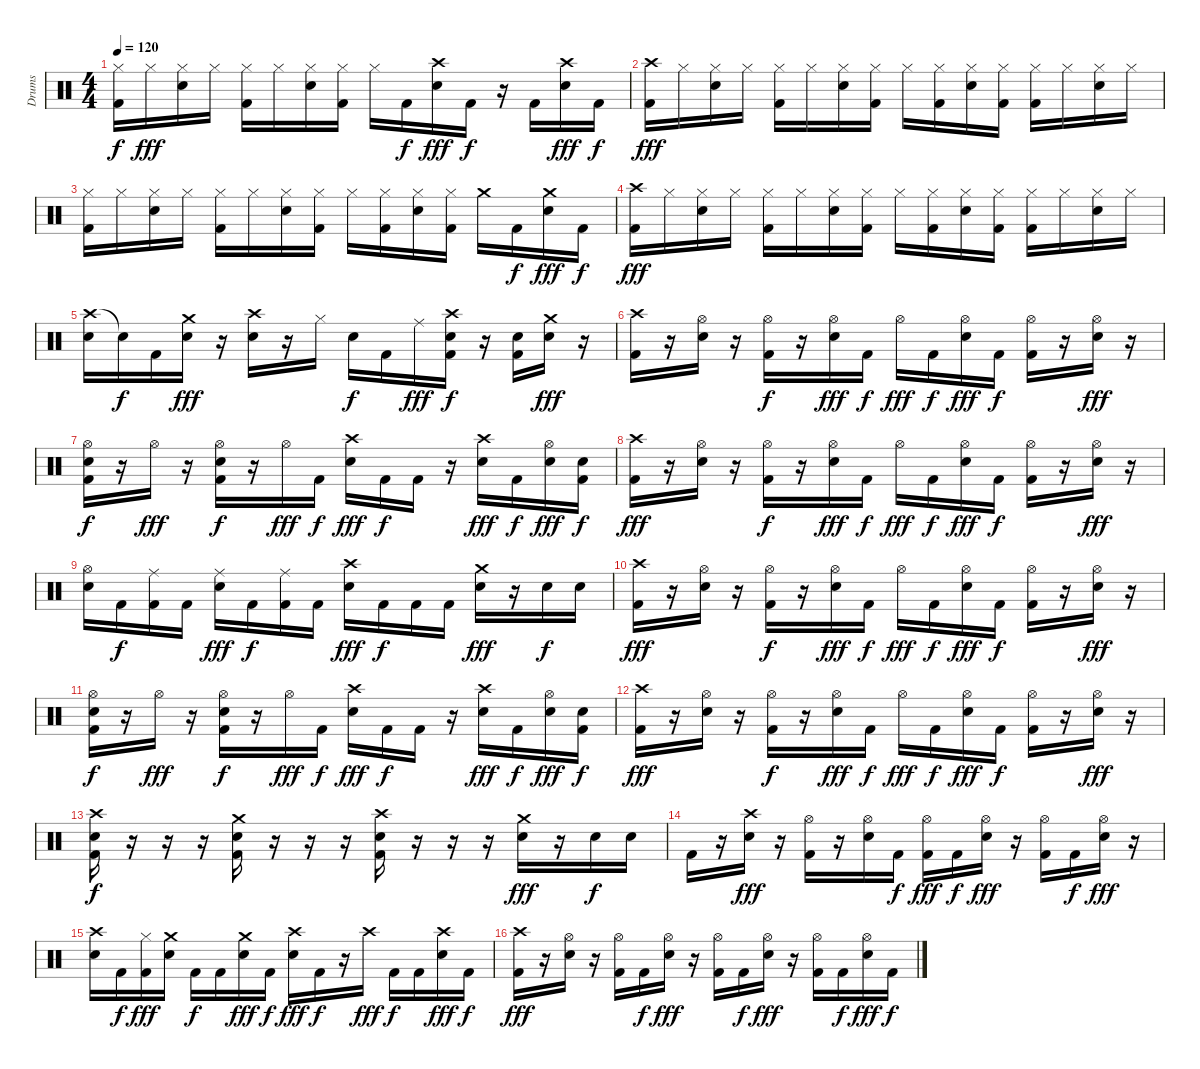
\track ("Drums" "Drums") {instrument percussion}
\staff {score}
\articulation defaults
\ts (4 4)
\tempo 120
\clef neutral
\ks c
("Hi-Hat (closed)" "Kick (hit) 2").16{dy f} "Hi-Hat (closed)".16{dy fff} ("Hi-Hat (closed)" "Snare (hit) 2").16 "Hi-Hat (closed)".16 ("Hi-Hat (closed)" "Kick (hit) 2").16 "Hi-Hat (closed)".16 ("Hi-Hat (closed)" "Snare (hit) 2").16 ("Hi-Hat (closed)" "Kick (hit) 2").16 "Hi-Hat (closed)".16 "Kick (hit) 2".16{dy f} ("Crash high (hit)" "Snare (hit) 2").16{dy fff} "Kick (hit) 2".16{dy f} r.16 "Kick (hit) 2".16 ("Crash high (hit)" "Snare (hit) 2").16{dy fff} "Kick (hit) 2".16{dy f} |
("Crash high (hit)" "Kick (hit) 2").16{dy fff} "Hi-Hat (closed)".16 ("Hi-Hat (closed)" "Snare (hit) 2").16 "Hi-Hat (closed)".16 ("Hi-Hat (closed)" "Kick (hit) 2").16 "Hi-Hat (closed)".16 ("Hi-Hat (closed)" "Snare (hit) 2").16 ("Hi-Hat (closed)" "Kick (hit) 2").16 "Hi-Hat (closed)".16 ("Hi-Hat (closed)" "Kick (hit) 2").16 ("Hi-Hat (closed)" "Snare (hit) 2").16 ("Hi-Hat (closed)" "Kick (hit) 2").16 ("Hi-Hat (closed)" "Kick (hit) 2").16 "Hi-Hat (closed)".16 ("Hi-Hat (closed)" "Snare (hit) 2").16 "Hi-Hat (closed)".16 |
("Hi-Hat (closed)" "Kick (hit) 2").16 "Hi-Hat (closed)".16 ("Hi-Hat (closed)" "Snare (hit) 2").16 "Hi-Hat (closed)".16 ("Hi-Hat (closed)" "Kick (hit) 2").16 "Hi-Hat (closed)".16 ("Hi-Hat (closed)" "Snare (hit) 2").16 ("Hi-Hat (closed)" "Kick (hit) 2").16 "Hi-Hat (closed)".16 ("Hi-Hat (closed)" "Kick (hit) 2").16 ("Hi-Hat (closed)" "Snare (hit) 2").16 ("Hi-Hat (closed)" "Kick (hit) 2").16 "Crash medium (hit)".16 "Kick (hit) 2".16{dy f} ("Crash medium (hit)" "Snare (hit) 2").16{dy fff} "Kick (hit) 2".16{dy f} |
("Crash high (hit)" "Kick (hit) 2").16{dy fff} "Hi-Hat (closed)".16 ("Hi-Hat (closed)" "Snare (hit) 2").16 "Hi-Hat (closed)".16 ("Hi-Hat (closed)" "Kick (hit) 2").16 "Hi-Hat (closed)".16 ("Hi-Hat (closed)" "Snare (hit) 2").16 ("Hi-Hat (closed)" "Kick (hit) 2").16 "Hi-Hat (closed)".16 ("Hi-Hat (closed)" "Kick (hit) 2").16 ("Hi-Hat (closed)" "Snare (hit) 2").16 ("Hi-Hat (closed)" "Kick (hit) 2").16 ("Hi-Hat (closed)" "Kick (hit) 2").16 "Hi-Hat (closed)".16 ("Hi-Hat (closed)" "Snare (hit) 2").16 "Hi-Hat (closed)".16 |
("Crash high (hit)" "Snare (hit) 2").16 "Snare (hit)"{t}.16{dy f} "Kick (hit) 2".16 ("Crash medium (hit)" "Snare (hit) 2").16{dy fff} r.16 ("Crash high (hit)" "Snare (hit) 2").16 r.16 "Hi-Hat (closed)".16 "Snare (hit) 2".16{dy f} "Kick (hit) 2".16 "Ride (middle)".16{dy fff} ("Crash high (hit)" "Snare (hit) 2" "Kick (hit) 2").16{dy f} r.16 ("Snare (hit) 2" "Kick (hit) 2").16 ("Crash medium (hit)" "Snare (hit) 2").16{dy fff} r.16 |
("Crash high (hit)" "Kick (hit) 2").16 r.16 ("Hi-Hat (open)" "Snare (hit) 2").16 r.16 ("Hi-Hat (open)" "Kick (hit) 2").16{dy f} r.16 ("Hi-Hat (open)" "Snare (hit) 2").16{dy fff} "Kick (hit) 2".16{dy f} "Hi-Hat (open)".16{dy fff} "Kick (hit) 2".16{dy f} ("Hi-Hat (open)" "Snare (hit) 2").16{dy fff} "Kick (hit) 2".16{dy f} ("Hi-Hat (open)" "Kick (hit) 2").16 r.16 ("Hi-Hat (open)" "Snare (hit) 2").16{dy fff} r.16 |
("Hi-Hat (open)" "Snare (hit) 2" "Kick (hit) 2").16{dy f} r.16 "Hi-Hat (open)".16{dy fff} r.16 ("Hi-Hat (open)" "Snare (hit) 2" "Kick (hit) 2").16{dy f} r.16 "Hi-Hat (open)".16{dy fff} "Kick (hit) 2".16{dy f} ("Crash high (hit)" "Snare (hit) 2").16{dy fff} "Kick (hit) 2".16{dy f} "Kick (hit) 2".16 r.16 ("Crash high (hit)" "Snare (hit) 2").16{dy fff} "Kick (hit) 2".16{dy f} ("Hi-Hat (open)" "Snare (hit) 2").16{dy fff} ("Snare (hit) 2" "Kick (hit) 2").16{dy f} |
("Crash high (hit)" "Kick (hit) 2").16{dy fff} r.16 ("Hi-Hat (open)" "Snare (hit) 2").16 r.16 ("Hi-Hat (open)" "Kick (hit) 2").16{dy f} r.16 ("Hi-Hat (open)" "Snare (hit) 2").16{dy fff} "Kick (hit) 2".16{dy f} "Hi-Hat (open)".16{dy fff} "Kick (hit) 2".16{dy f} ("Hi-Hat (open)" "Snare (hit) 2").16{dy fff} "Kick (hit) 2".16{dy f} ("Hi-Hat (open)" "Kick (hit) 2").16 r.16 ("Hi-Hat (open)" "Snare (hit) 2").16{dy fff} r.16 |
("Hi-Hat (open)" "Snare (hit) 2").16 "Kick (hit) 2".16{dy f} ("Ride (middle)" "Kick (hit) 2").16 "Kick (hit) 2".16 ("Ride (middle)" "Snare (hit) 2").16{dy fff} "Kick (hit) 2".16{dy f} ("Ride (middle)" "Kick (hit) 2").16 "Kick (hit) 2".16 ("Crash high (hit)" "Snare (hit) 2").16{dy fff} "Kick (hit) 2".16{dy f} "Kick (hit) 2".16 "Kick (hit) 2".16 ("Crash medium (hit)" "Snare (hit) 2").16{dy fff} r.16 "Snare (hit) 2".16{dy f} "Snare (hit) 2".16 |
("Crash high (hit)" "Kick (hit) 2").16{dy fff} r.16 ("Hi-Hat (open)" "Snare (hit) 2").16 r.16 ("Hi-Hat (open)" "Kick (hit) 2").16{dy f} r.16 ("Hi-Hat (open)" "Snare (hit) 2").16{dy fff} "Kick (hit) 2".16{dy f} "Hi-Hat (open)".16{dy fff} "Kick (hit) 2".16{dy f} ("Hi-Hat (open)" "Snare (hit) 2").16{dy fff} "Kick (hit) 2".16{dy f} ("Hi-Hat (open)" "Kick (hit) 2").16 r.16 ("Hi-Hat (open)" "Snare (hit) 2").16{dy fff} r.16 |
("Hi-Hat (open)" "Snare (hit) 2" "Kick (hit) 2").16{dy f} r.16 "Hi-Hat (open)".16{dy fff} r.16 ("Hi-Hat (open)" "Snare (hit) 2" "Kick (hit) 2").16{dy f} r.16 "Hi-Hat (open)".16{dy fff} "Kick (hit) 2".16{dy f} ("Crash high (hit)" "Snare (hit) 2").16{dy fff} "Kick (hit) 2".16{dy f} "Kick (hit) 2".16 r.16 ("Crash high (hit)" "Snare (hit) 2").16{dy fff} "Kick (hit) 2".16{dy f} ("Hi-Hat (open)" "Snare (hit) 2").16{dy fff} ("Snare (hit) 2" "Kick (hit) 2").16{dy f} |
("Crash high (hit)" "Kick (hit) 2").16{dy fff} r.16 ("Hi-Hat (open)" "Snare (hit) 2").16 r.16 ("Hi-Hat (open)" "Kick (hit) 2").16{dy f} r.16 ("Hi-Hat (open)" "Snare (hit) 2").16{dy fff} "Kick (hit) 2".16{dy f} "Hi-Hat (open)".16{dy fff} "Kick (hit) 2".16{dy f} ("Hi-Hat (open)" "Snare (hit) 2").16{dy fff} "Kick (hit) 2".16{dy f} ("Hi-Hat (open)" "Kick (hit) 2").16 r.16 ("Hi-Hat (open)" "Snare (hit) 2").16{dy fff} r.16 |
("Crash high (hit)" "Snare (hit) 2" "Kick (hit) 2").16{dy f} r.16 r.16 r.16 ("Crash medium (hit)" "Snare (hit) 2" "Kick (hit) 2").16 r.16 r.16 r.16 ("Crash high (hit)" "Snare (hit) 2" "Kick (hit) 2").16 r.16 r.16 r.16 ("Crash medium (hit)" "Snare (hit) 2").16{dy fff} r.16 "Snare (hit) 2".16{dy f} "Snare (hit) 2".16 |
"Kick (hit) 2".16 r.16 ("Crash high (hit)" "Snare (hit) 2").16{dy fff} r.16 ("Hi-Hat (open)" "Kick (hit) 2").16 r.16 ("Hi-Hat (open)" "Snare (hit) 2").16 "Kick (hit) 2".16{dy f} ("Hi-Hat (open)" "Kick (hit) 2").16{dy fff} "Kick (hit) 2".16{dy f} ("Hi-Hat (open)" "Snare (hit) 2").16{dy fff} r.16 ("Hi-Hat (open)" "Kick (hit) 2").16 "Kick (hit) 2".16{dy f} ("Hi-Hat (open)" "Snare (hit) 2").16{dy fff} r.16 |
("Crash high (hit)" "Snare (hit) 2").16 "Kick (hit) 2".16{dy f} ("Hi-Hat (closed)" "Kick (hit) 2").16{dy fff} ("Crash medium (hit)" "Snare (hit) 2").16 "Kick (hit) 2".16{dy f} "Kick (hit) 2".16 ("Crash medium (hit)" "Snare (hit) 2").16{dy fff} "Kick (hit) 2".16{dy f} ("Crash high (hit)" "Snare (hit) 2").16{dy fff} "Kick (hit) 2".16{dy f} r.16 "Crash high (hit)".16{dy fff} "Kick (hit) 2".16{dy f} "Kick (hit) 2".16 ("Crash high (hit)" "Snare (hit) 2").16{dy fff} "Kick (hit) 2".16{dy f} |
("Crash high (hit)" "Kick (hit) 2").16{dy fff} r.16 ("Hi-Hat (open)" "Snare (hit) 2").16 r.16 ("Hi-Hat (open)" "Kick (hit) 2").16 "Kick (hit) 2".16{dy f} ("Hi-Hat (open)" "Snare (hit) 2").16{dy fff} r.16 ("Hi-Hat (open)" "Kick (hit) 2").16 "Kick (hit) 2".16{dy f} ("Hi-Hat (open)" "Snare (hit) 2").16{dy fff} r.16 ("Hi-Hat (open)" "Kick (hit) 2").16 "Kick (hit) 2".16{dy f} ("Hi-Hat (open)" "Snare (hit) 2").16{dy fff} "Kick (hit) 2".16{dy f}
